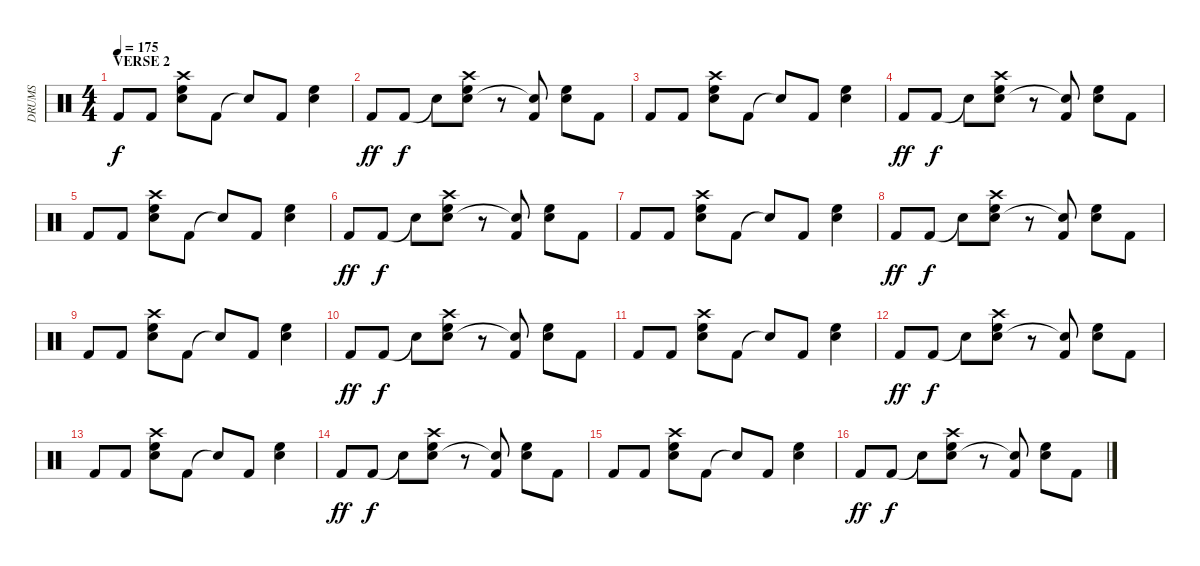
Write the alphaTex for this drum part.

\track ("DRUMS" "DRUMS") {instrument percussion}
\staff {score}
\articulation defaults
\ts (4 4)
\section ("" "VERSE 2")
\tempo 175
\clef neutral
\ks c "Kick (hit) 2".8{dy f} "Kick (hit) 2".8
("High Floor Tom (hit)" "Electric Snare (hit)" "Crash high (hit)").8 "Kick (hit) 2".8 "Snare (hit)"{t}.8 "Kick (hit) 2".8 ("High Floor Tom (hit)" "Electric Snare (hit)").4 |
"Kick (hit) 2".8{dy ff} "Kick (hit) 2".8{dy f} "Snare (hit)"{t}.8 ("High Floor Tom (hit)" "Electric Snare (hit)" "Crash high (hit)").8 r.8 ("Kick (hit) 2" "Snare (hit)"{t}).8 ("High Floor Tom (hit)" "Electric Snare (hit)").8 "Kick (hit) 2".8 |
"Kick (hit) 2".8 "Kick (hit) 2".8 ("High Floor Tom (hit)" "Electric Snare (hit)" "Crash high (hit)").8 "Kick (hit) 2".8 "Snare (hit)"{t}.8 "Kick (hit) 2".8 ("High Floor Tom (hit)" "Electric Snare (hit)").4 |
"Kick (hit) 2".8{dy ff} "Kick (hit) 2".8{dy f} "Snare (hit)"{t}.8 ("High Floor Tom (hit)" "Electric Snare (hit)" "Crash high (hit)").8 r.8 ("Kick (hit) 2" "Snare (hit)"{t}).8 ("High Floor Tom (hit)" "Electric Snare (hit)").8 "Kick (hit) 2".8 |
"Kick (hit) 2".8 "Kick (hit) 2".8 ("High Floor Tom (hit)" "Electric Snare (hit)" "Crash high (hit)").8 "Kick (hit) 2".8 "Snare (hit)"{t}.8 "Kick (hit) 2".8 ("High Floor Tom (hit)" "Electric Snare (hit)").4 |
"Kick (hit) 2".8{dy ff} "Kick (hit) 2".8{dy f} "Snare (hit)"{t}.8 ("High Floor Tom (hit)" "Electric Snare (hit)" "Crash high (hit)").8 r.8 ("Kick (hit) 2" "Snare (hit)"{t}).8 ("High Floor Tom (hit)" "Electric Snare (hit)").8 "Kick (hit) 2".8 |
"Kick (hit) 2".8 "Kick (hit) 2".8 ("High Floor Tom (hit)" "Electric Snare (hit)" "Crash high (hit)").8 "Kick (hit) 2".8 "Snare (hit)"{t}.8 "Kick (hit) 2".8 ("High Floor Tom (hit)" "Electric Snare (hit)").4 |
"Kick (hit) 2".8{dy ff} "Kick (hit) 2".8{dy f} "Snare (hit)"{t}.8 ("High Floor Tom (hit)" "Electric Snare (hit)" "Crash high (hit)").8 r.8 ("Kick (hit) 2" "Snare (hit)"{t}).8 ("High Floor Tom (hit)" "Electric Snare (hit)").8 "Kick (hit) 2".8 |
"Kick (hit) 2".8 "Kick (hit) 2".8 ("High Floor Tom (hit)" "Electric Snare (hit)" "Crash high (hit)").8 "Kick (hit) 2".8 "Snare (hit)"{t}.8 "Kick (hit) 2".8 ("High Floor Tom (hit)" "Electric Snare (hit)").4 |
"Kick (hit) 2".8{dy ff} "Kick (hit) 2".8{dy f} "Snare (hit)"{t}.8 ("High Floor Tom (hit)" "Electric Snare (hit)" "Crash high (hit)").8 r.8 ("Kick (hit) 2" "Snare (hit)"{t}).8 ("High Floor Tom (hit)" "Electric Snare (hit)").8 "Kick (hit) 2".8 |
"Kick (hit) 2".8 "Kick (hit) 2".8 ("High Floor Tom (hit)" "Electric Snare (hit)" "Crash high (hit)").8 "Kick (hit) 2".8 "Snare (hit)"{t}.8 "Kick (hit) 2".8 ("High Floor Tom (hit)" "Electric Snare (hit)").4 |
"Kick (hit) 2".8{dy ff} "Kick (hit) 2".8{dy f} "Snare (hit)"{t}.8 ("High Floor Tom (hit)" "Electric Snare (hit)" "Crash high (hit)").8 r.8 ("Kick (hit) 2" "Snare (hit)"{t}).8 ("High Floor Tom (hit)" "Electric Snare (hit)").8 "Kick (hit) 2".8 |
"Kick (hit) 2".8 "Kick (hit) 2".8 ("High Floor Tom (hit)" "Electric Snare (hit)" "Crash high (hit)").8 "Kick (hit) 2".8 "Snare (hit)"{t}.8 "Kick (hit) 2".8 ("High Floor Tom (hit)" "Electric Snare (hit)").4 |
"Kick (hit) 2".8{dy ff} "Kick (hit) 2".8{dy f} "Snare (hit)"{t}.8 ("High Floor Tom (hit)" "Electric Snare (hit)" "Crash high (hit)").8 r.8 ("Kick (hit) 2" "Snare (hit)"{t}).8 ("High Floor Tom (hit)" "Electric Snare (hit)").8 "Kick (hit) 2".8 |
"Kick (hit) 2".8 "Kick (hit) 2".8 ("High Floor Tom (hit)" "Electric Snare (hit)" "Crash high (hit)").8 "Kick (hit) 2".8 "Snare (hit)"{t}.8 "Kick (hit) 2".8 ("High Floor Tom (hit)" "Electric Snare (hit)").4 |
"Kick (hit) 2".8{dy ff} "Kick (hit) 2".8{dy f} "Snare (hit)"{t}.8 ("High Floor Tom (hit)" "Electric Snare (hit)" "Crash high (hit)").8 r.8 ("Kick (hit) 2" "Snare (hit)"{t}).8 ("High Floor Tom (hit)" "Electric Snare (hit)").8 "Kick (hit) 2".8
